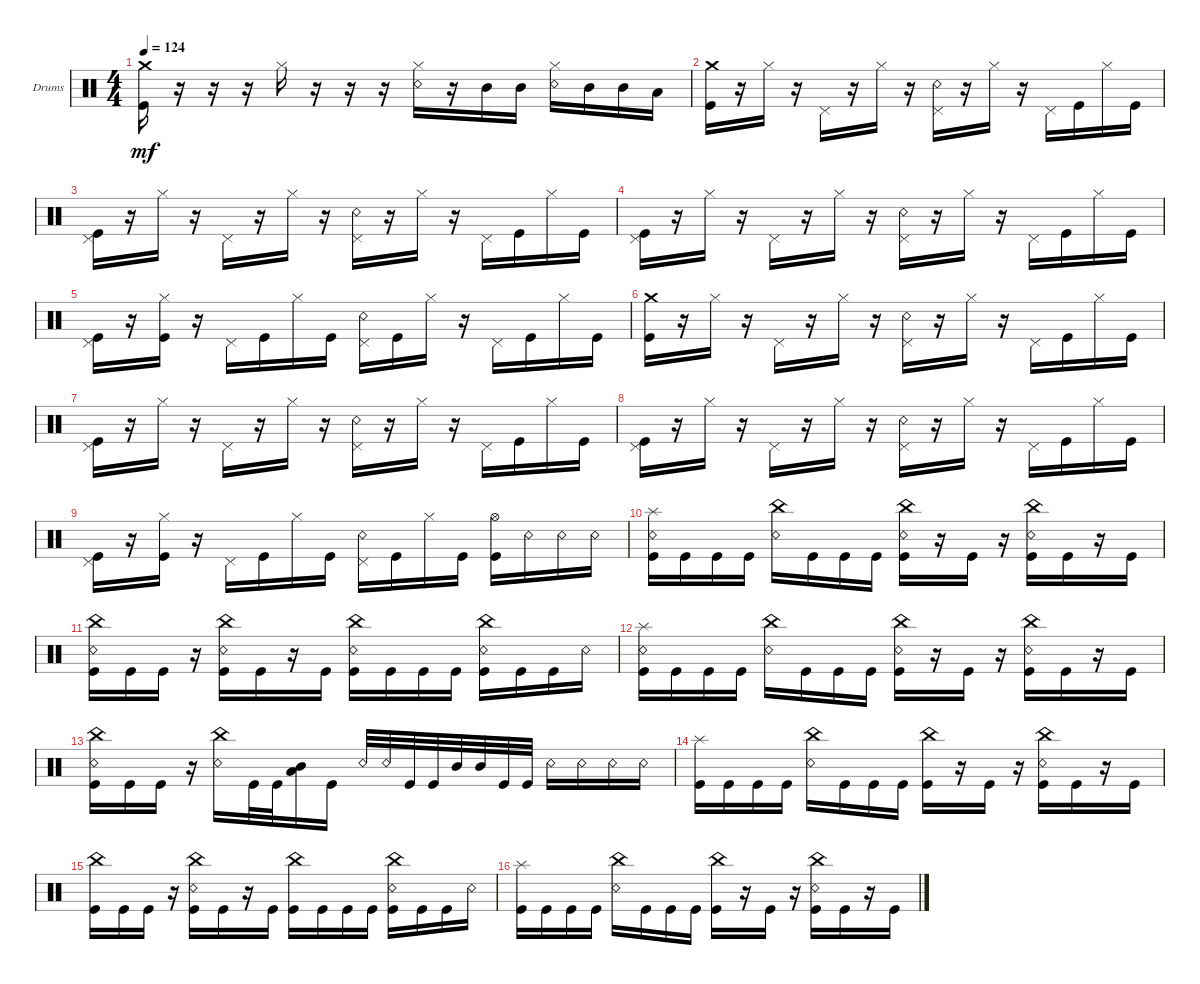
\defaultSystemsLayout 4
\bracketExtendMode groupsimilarinstruments
\firstSystemTrackNameOrientation horizontal
\otherSystemsTrackNameOrientation horizontal
\track ("Drums" "Drums") {instrument percussion}
\staff {score}
\articulation defaults
\ts (4 4)
\tempo 124
\clef neutral
\ks c
("Kick (hit)" "Crash medium (hit)").16{dy mf} r.16 r.16 r.16 "Hi-Hat (closed)".16 r.16 r.16 r.16 ("Snare (rim shot)" "Hi-Hat (closed)").16 r.16 "Mid Tom (hit)".16 "Mid Tom (hit)".16 ("Hi-Hat (closed)" "Snare (rim shot)").16 "Mid Tom (hit)".16 "Mid Tom (hit)".16 "Low Tom (hit)".16 |
("Kick (hit)" "Crash medium (hit)").16 r.16 "Hi-Hat (closed)".16 r.16 "Pedal Hi-Hat (hit)".16 r.16 "Hi-Hat (closed)".16 r.16 ("Pedal Hi-Hat (hit)" "Snare (rim shot)").16 r.16 "Hi-Hat (closed)".16 r.16 "Pedal Hi-Hat (hit)".16 "Kick (hit)".16 "Hi-Hat (closed)".16 "Kick (hit)".16 |
("Kick (hit)" "Pedal Hi-Hat (hit)").16 r.16 "Hi-Hat (closed)".16 r.16 "Pedal Hi-Hat (hit)".16 r.16 "Hi-Hat (closed)".16 r.16 ("Pedal Hi-Hat (hit)" "Snare (rim shot)").16 r.16 "Hi-Hat (closed)".16 r.16 "Pedal Hi-Hat (hit)".16 "Kick (hit)".16 "Hi-Hat (closed)".16 "Kick (hit)".16 |
("Kick (hit)" "Pedal Hi-Hat (hit)").16 r.16 "Hi-Hat (closed)".16 r.16 "Pedal Hi-Hat (hit)".16 r.16 "Hi-Hat (closed)".16 r.16 ("Pedal Hi-Hat (hit)" "Snare (rim shot)").16 r.16 "Hi-Hat (closed)".16 r.16 "Pedal Hi-Hat (hit)".16 "Kick (hit)".16 "Hi-Hat (closed)".16 "Kick (hit)".16 |
("Kick (hit)" "Pedal Hi-Hat (hit)").16 r.16 ("Kick (hit)" "Hi-Hat (closed)").16 r.16 "Pedal Hi-Hat (hit)".16 "Kick (hit)".16 "Hi-Hat (closed)".16 "Kick (hit)".16 ("Pedal Hi-Hat (hit)" "Snare (rim shot)").16 "Kick (hit)".16 "Hi-Hat (closed)".16 r.16 "Pedal Hi-Hat (hit)".16 "Kick (hit)".16 "Hi-Hat (closed)".16 "Kick (hit)".16 |
("Kick (hit)" "Crash medium (hit)").16 r.16 "Hi-Hat (closed)".16 r.16 "Pedal Hi-Hat (hit)".16 r.16 "Hi-Hat (closed)".16 r.16 ("Pedal Hi-Hat (hit)" "Snare (rim shot)").16 r.16 "Hi-Hat (closed)".16 r.16 "Pedal Hi-Hat (hit)".16 "Kick (hit)".16 "Hi-Hat (closed)".16 "Kick (hit)".16 |
("Kick (hit)" "Pedal Hi-Hat (hit)").16 r.16 "Hi-Hat (closed)".16 r.16 "Pedal Hi-Hat (hit)".16 r.16 "Hi-Hat (closed)".16 r.16 ("Pedal Hi-Hat (hit)" "Snare (rim shot)").16 r.16 "Hi-Hat (closed)".16 r.16 "Pedal Hi-Hat (hit)".16 "Kick (hit)".16 "Hi-Hat (closed)".16 "Kick (hit)".16 |
("Kick (hit)" "Pedal Hi-Hat (hit)").16 r.16 "Hi-Hat (closed)".16 r.16 "Pedal Hi-Hat (hit)".16 r.16 "Hi-Hat (closed)".16 r.16 ("Pedal Hi-Hat (hit)" "Snare (rim shot)").16 r.16 "Hi-Hat (closed)".16 r.16 "Pedal Hi-Hat (hit)".16 "Kick (hit)".16 "Hi-Hat (closed)".16 "Kick (hit)".16 |
("Kick (hit)" "Pedal Hi-Hat (hit)").16 r.16 ("Kick (hit)" "Hi-Hat (closed)").16 r.16 "Pedal Hi-Hat (hit)".16 "Kick (hit)".16 "Hi-Hat (closed)".16 "Kick (hit)".16 ("Pedal Hi-Hat (hit)" "Snare (rim shot)").16 "Kick (hit)".16 "Hi-Hat (closed)".16 "Kick (hit)".16 ("Hi-Hat (open)" "Kick (hit)").16 "Snare (rim shot)".16 "Snare (rim shot)".16 "Snare (rim shot)".16 |
("Kick (hit)" "Splash (hit)" "Snare (rim shot)").16 "Kick (hit)".16 "Kick (hit)".16 "Kick (hit)".16 ("China (hit)" "Snare (rim shot)").16 "Kick (hit)".16 "Kick (hit)".16 "Kick (hit)".16 ("Kick (hit)" "China (hit)" "Snare (rim shot)").16 r.16 "Kick (hit)".16 r.16 ("Kick (hit)" "China (hit)" "Snare (rim shot)").16 "Kick (hit)".16 r.16 "Kick (hit)".16 |
("Kick (hit)" "China (hit)" "Snare (rim shot)").16 "Kick (hit)".16 "Kick (hit)".16 r.16 ("Kick (hit)" "China (hit)" "Snare (rim shot)").16 "Kick (hit)".16 r.16 "Kick (hit)".16 ("Kick (hit)" "China (hit)" "Snare (rim shot)").16 "Kick (hit)".16 "Kick (hit)".16 "Kick (hit)".16 ("Kick (hit)" "Snare (rim shot)" "China (hit)").16 "Kick (hit)".16 "Kick (hit)".16 "Snare (rim shot)".16 |
("Kick (hit)" "Splash (hit)" "Snare (rim shot)").16 "Kick (hit)".16 "Kick (hit)".16 "Kick (hit)".16 ("China (hit)" "Snare (rim shot)").16 "Kick (hit)".16 "Kick (hit)".16 "Kick (hit)".16 ("Kick (hit)" "China (hit)" "Snare (rim shot)").16 r.16 "Kick (hit)".16 r.16 ("Kick (hit)" "China (hit)" "Snare (rim shot)").16 "Kick (hit)".16 r.16 "Kick (hit)".16 |
("Kick (hit)" "China (hit)" "Snare (rim shot)").16 "Kick (hit)".16 "Kick (hit)".16 r.16 ("Snare (rim shot)" "China (hit)").16 "Kick (hit)".32 "Kick (hit)".32 ("Mid Tom (hit)" "Low Tom (hit)").16 "Kick (hit)".16 "Snare (rim shot)".32 "Snare (rim shot)".32 "Kick (hit)".32 "Kick (hit)".32 "Mid Tom (hit)".32 "Mid Tom (hit)".32 "Kick (hit)".32 "Kick (hit)".32 "Snare (rim shot)".16 "Snare (rim shot)".16 "Snare (rim shot)".16 "Snare (rim shot)".16 |
("Kick (hit)" "Splash (hit)").16 "Kick (hit)".16 "Kick (hit)".16 "Kick (hit)".16 ("China (hit)" "Snare (rim shot)").16 "Kick (hit)".16 "Kick (hit)".16 "Kick (hit)".16 ("Kick (hit)" "China (hit)").16 r.16 "Kick (hit)".16 r.16 ("Kick (hit)" "China (hit)" "Snare (rim shot)").16 "Kick (hit)".16 r.16 "Kick (hit)".16 |
("Kick (hit)" "China (hit)").16 "Kick (hit)".16 "Kick (hit)".16 r.16 ("Kick (hit)" "China (hit)" "Snare (rim shot)").16 "Kick (hit)".16 r.16 "Kick (hit)".16 ("Kick (hit)" "China (hit)").16 "Kick (hit)".16 "Kick (hit)".16 "Kick (hit)".16 ("Kick (hit)" "China (hit)" "Snare (rim shot)").16 "Kick (hit)".16 "Kick (hit)".16 "Snare (rim shot)".16 |
("Kick (hit)" "Splash (hit)").16 "Kick (hit)".16 "Kick (hit)".16 "Kick (hit)".16 ("China (hit)" "Snare (rim shot)").16 "Kick (hit)".16 "Kick (hit)".16 "Kick (hit)".16 ("Kick (hit)" "China (hit)").16 r.16 "Kick (hit)".16 r.16 ("Kick (hit)" "China (hit)" "Snare (rim shot)").16 "Kick (hit)".16 r.16 "Kick (hit)".16
